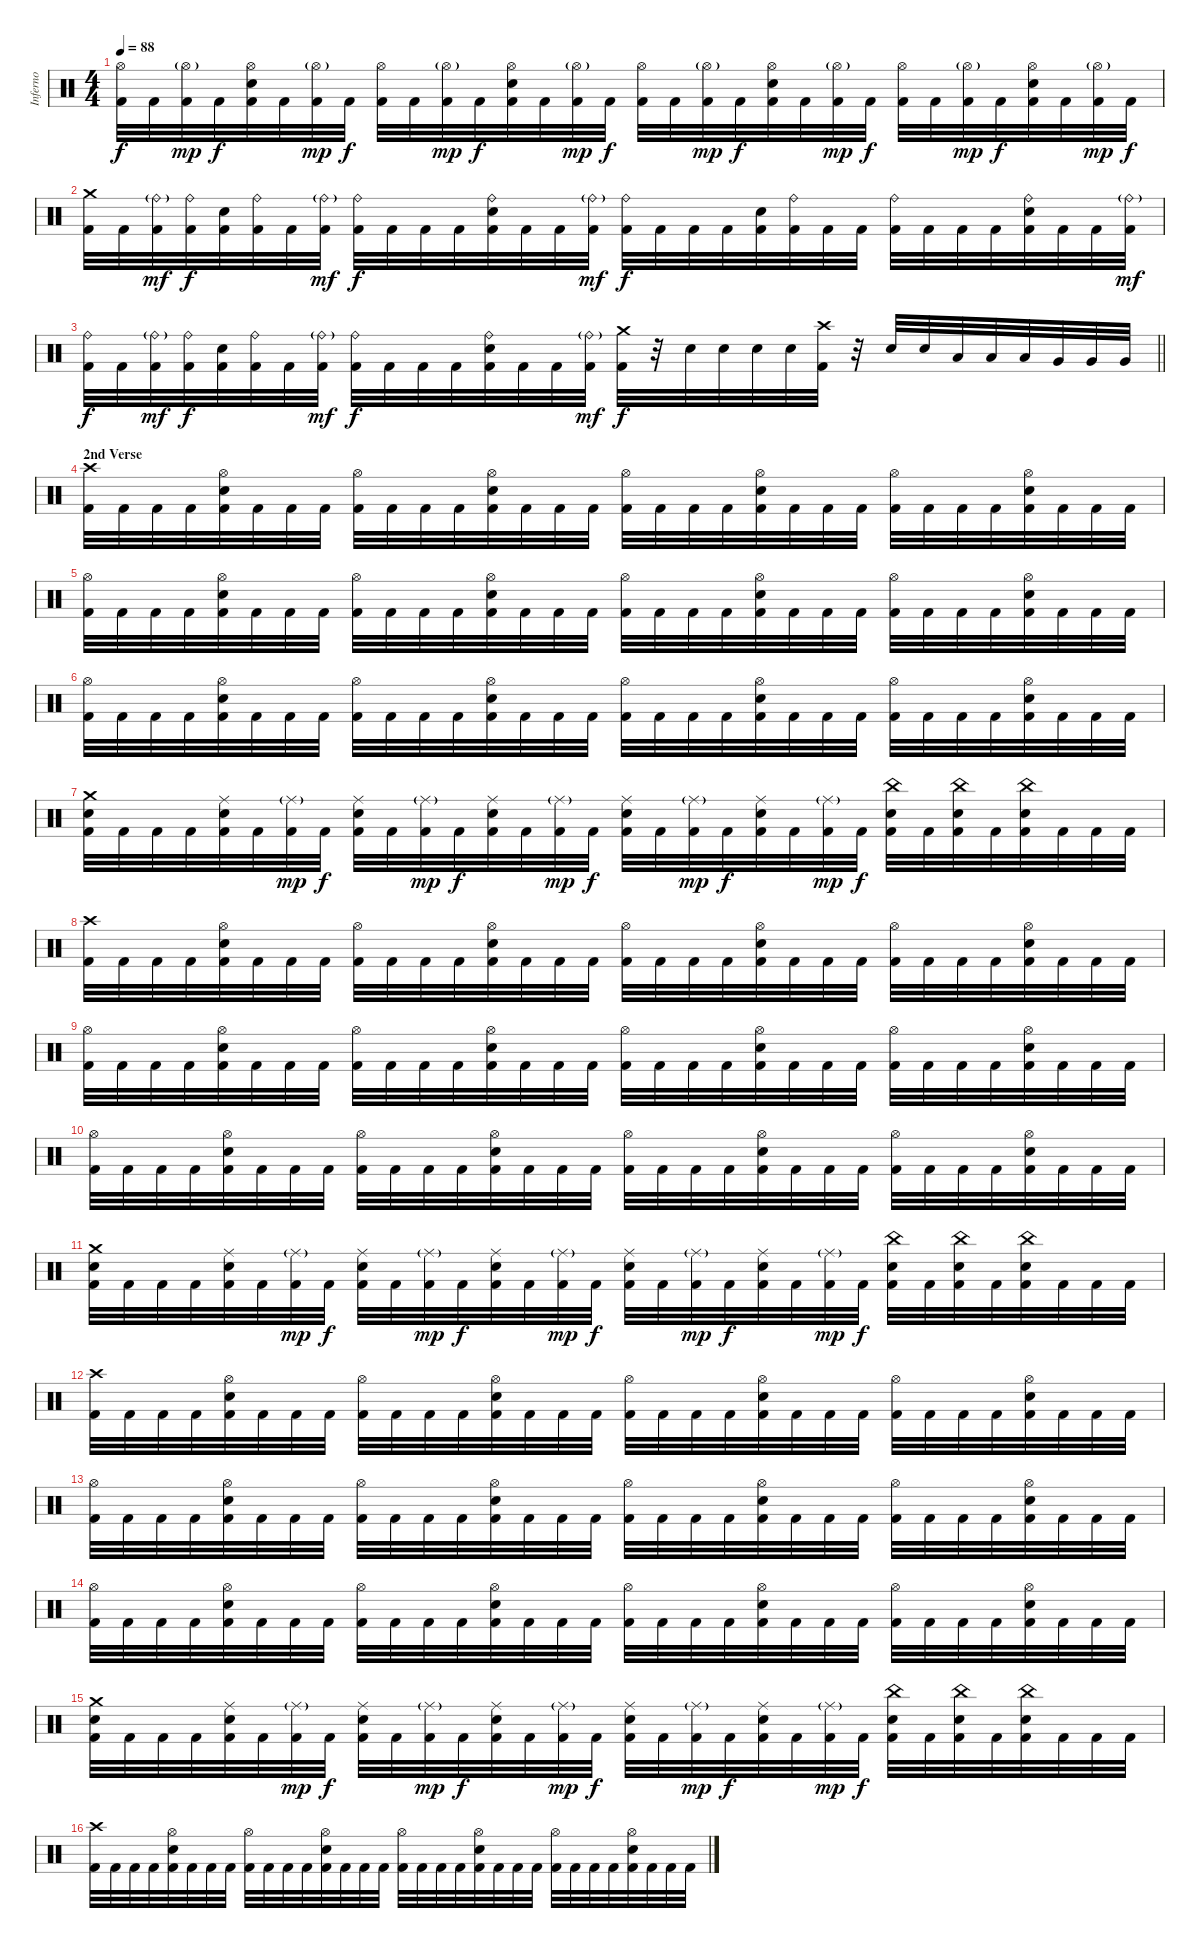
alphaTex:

\track ("Inferno" "Inferno") {instrument percussion}
\staff {score}
\articulation defaults
\ts (4 4)
\tempo 88
\clef neutral
\ks c
("Hi-Hat (open)" "Kick (hit) 2").32{dy f} "Kick (hit) 2".32 ("Hi-Hat (open)"{g} "Kick (hit) 2").32{dy mp} "Kick (hit) 2".32{dy f} ("Hi-Hat (open)" "Snare (hit) 2" "Kick (hit) 2").32 "Kick (hit) 2".32 ("Hi-Hat (open)"{g} "Kick (hit) 2").32{dy mp} "Kick (hit) 2".32{dy f} ("Hi-Hat (open)" "Kick (hit) 2").32 "Kick (hit) 2".32 ("Hi-Hat (open)"{g} "Kick (hit) 2").32{dy mp} "Kick (hit) 2".32{dy f} ("Hi-Hat (open)" "Snare (hit) 2" "Kick (hit) 2").32 "Kick (hit) 2".32 ("Hi-Hat (open)"{g} "Kick (hit) 2").32{dy mp} "Kick (hit) 2".32{dy f} ("Hi-Hat (open)" "Kick (hit) 2").32 "Kick (hit) 2".32 ("Hi-Hat (open)"{g} "Kick (hit) 2").32{dy mp} "Kick (hit) 2".32{dy f} ("Hi-Hat (open)" "Snare (hit) 2" "Kick (hit) 2").32 "Kick (hit) 2".32 ("Hi-Hat (open)"{g} "Kick (hit) 2").32{dy mp} "Kick (hit) 2".32{dy f} ("Hi-Hat (open)" "Kick (hit) 2").32 "Kick (hit) 2".32 ("Hi-Hat (open)"{g} "Kick (hit) 2").32{dy mp} "Kick (hit) 2".32{dy f} ("Hi-Hat (open)" "Snare (hit) 2" "Kick (hit) 2").32 "Kick (hit) 2".32 ("Hi-Hat (open)"{g} "Kick (hit) 2").32{dy mp} "Kick (hit) 2".32{dy f} |
("Crash medium (hit)" "Kick (hit) 2").32 "Kick (hit) 2".32 ("Ride (bell)"{g} "Kick (hit) 2").32{dy mf} ("Ride (bell)" "Kick (hit) 2").32{dy f} ("Snare (hit) 2" "Kick (hit) 2").32 ("Ride (bell)" "Kick (hit) 2").32 "Kick (hit) 2".32 ("Ride (bell)"{g} "Kick (hit) 2").32{dy mf} ("Ride (bell)" "Kick (hit) 2").32{dy f} "Kick (hit) 2".32 "Kick (hit) 2".32 "Kick (hit) 2".32 ("Ride (bell)" "Snare (hit) 2" "Kick (hit) 2").32 "Kick (hit) 2".32 "Kick (hit) 2".32 ("Ride (bell)"{g} "Kick (hit) 2").32{dy mf} ("Ride (bell)" "Kick (hit) 2").32{dy f} "Kick (hit) 2".32 "Kick (hit) 2".32 "Kick (hit) 2".32 ("Snare (hit) 2" "Kick (hit) 2").32 ("Ride (bell)" "Kick (hit) 2").32 "Kick (hit) 2".32 "Kick (hit) 2".32 ("Ride (bell)" "Kick (hit) 2").32 "Kick (hit) 2".32 "Kick (hit) 2".32 "Kick (hit) 2".32 ("Ride (bell)" "Snare (hit) 2" "Kick (hit) 2").32 "Kick (hit) 2".32 "Kick (hit) 2".32 ("Ride (bell)"{g} "Kick (hit) 2").32{dy mf} |
\barLineRight lightlight
("Ride (bell)" "Kick (hit) 2").32{dy f} "Kick (hit) 2".32 ("Ride (bell)"{g} "Kick (hit) 2").32{dy mf} ("Ride (bell)" "Kick (hit) 2").32{dy f} ("Snare (hit) 2" "Kick (hit) 2").32 ("Ride (bell)" "Kick (hit) 2").32 "Kick (hit) 2".32 ("Ride (bell)"{g} "Kick (hit) 2").32{dy mf} ("Ride (bell)" "Kick (hit) 2").32{dy f} "Kick (hit) 2".32 "Kick (hit) 2".32 "Kick (hit) 2".32 ("Ride (bell)" "Snare (hit) 2" "Kick (hit) 2").32 "Kick (hit) 2".32 "Kick (hit) 2".32 ("Ride (bell)"{g} "Kick (hit) 2").32{dy mf} ("Crash medium (hit)" "Kick (hit) 2").32{dy f} r.32 "Snare (hit) 2".32 "Snare (hit) 2".32 "Snare (hit) 2".32 "Snare (hit) 2".32 ("Crash high (hit)" "Kick (hit) 2").32 r.32 "Snare (hit) 2".32 "Snare (hit) 2".32 "Low Tom (hit)".32 "Low Tom (hit)".32 "Low Tom (hit)".32 "Very Low Tom (hit)".32 "Very Low Tom (hit)".32 "Very Low Tom (hit)".32 |
\section ("" "2nd Verse")
("Crash high (hit)" "Kick (hit) 2").32 "Kick (hit) 2".32 "Kick (hit) 2".32 "Kick (hit) 2".32 ("Hi-Hat (open)" "Snare (hit) 2" "Kick (hit) 2").32 "Kick (hit) 2".32 "Kick (hit) 2".32 "Kick (hit) 2".32 ("Hi-Hat (open)" "Kick (hit) 2").32 "Kick (hit) 2".32 "Kick (hit) 2".32 "Kick (hit) 2".32 ("Hi-Hat (open)" "Snare (hit) 2" "Kick (hit) 2").32 "Kick (hit) 2".32 "Kick (hit) 2".32 "Kick (hit) 2".32 ("Hi-Hat (open)" "Kick (hit) 2").32 "Kick (hit) 2".32 "Kick (hit) 2".32 "Kick (hit) 2".32 ("Hi-Hat (open)" "Snare (hit) 2" "Kick (hit) 2").32 "Kick (hit) 2".32 "Kick (hit) 2".32 "Kick (hit) 2".32 ("Hi-Hat (open)" "Kick (hit) 2").32 "Kick (hit) 2".32 "Kick (hit) 2".32 "Kick (hit) 2".32 ("Hi-Hat (open)" "Snare (hit) 2" "Kick (hit) 2").32 "Kick (hit) 2".32 "Kick (hit) 2".32 "Kick (hit) 2".32 |
("Hi-Hat (open)" "Kick (hit) 2").32 "Kick (hit) 2".32 "Kick (hit) 2".32 "Kick (hit) 2".32 ("Hi-Hat (open)" "Snare (hit) 2" "Kick (hit) 2").32 "Kick (hit) 2".32 "Kick (hit) 2".32 "Kick (hit) 2".32 ("Hi-Hat (open)" "Kick (hit) 2").32 "Kick (hit) 2".32 "Kick (hit) 2".32 "Kick (hit) 2".32 ("Hi-Hat (open)" "Snare (hit) 2" "Kick (hit) 2").32 "Kick (hit) 2".32 "Kick (hit) 2".32 "Kick (hit) 2".32 ("Hi-Hat (open)" "Kick (hit) 2").32 "Kick (hit) 2".32 "Kick (hit) 2".32 "Kick (hit) 2".32 ("Hi-Hat (open)" "Snare (hit) 2" "Kick (hit) 2").32 "Kick (hit) 2".32 "Kick (hit) 2".32 "Kick (hit) 2".32 ("Hi-Hat (open)" "Kick (hit) 2").32 "Kick (hit) 2".32 "Kick (hit) 2".32 "Kick (hit) 2".32 ("Hi-Hat (open)" "Snare (hit) 2" "Kick (hit) 2").32 "Kick (hit) 2".32 "Kick (hit) 2".32 "Kick (hit) 2".32 |
("Hi-Hat (open)" "Kick (hit) 2").32 "Kick (hit) 2".32 "Kick (hit) 2".32 "Kick (hit) 2".32 ("Hi-Hat (open)" "Snare (hit) 2" "Kick (hit) 2").32 "Kick (hit) 2".32 "Kick (hit) 2".32 "Kick (hit) 2".32 ("Hi-Hat (open)" "Kick (hit) 2").32 "Kick (hit) 2".32 "Kick (hit) 2".32 "Kick (hit) 2".32 ("Hi-Hat (open)" "Snare (hit) 2" "Kick (hit) 2").32 "Kick (hit) 2".32 "Kick (hit) 2".32 "Kick (hit) 2".32 ("Hi-Hat (open)" "Kick (hit) 2").32 "Kick (hit) 2".32 "Kick (hit) 2".32 "Kick (hit) 2".32 ("Hi-Hat (open)" "Snare (hit) 2" "Kick (hit) 2").32 "Kick (hit) 2".32 "Kick (hit) 2".32 "Kick (hit) 2".32 ("Hi-Hat (open)" "Kick (hit) 2").32 "Kick (hit) 2".32 "Kick (hit) 2".32 "Kick (hit) 2".32 ("Hi-Hat (open)" "Snare (hit) 2" "Kick (hit) 2").32 "Kick (hit) 2".32 "Kick (hit) 2".32 "Kick (hit) 2".32 |
("Crash medium (hit)" "Snare (hit) 2" "Kick (hit) 2").32 "Kick (hit) 2".32 "Kick (hit) 2".32 "Kick (hit) 2".32 ("Ride (middle)" "Snare (hit) 2" "Kick (hit) 2").32 "Kick (hit) 2".32 ("Ride (middle)"{g} "Kick (hit) 2").32{dy mp} "Kick (hit) 2".32{dy f} ("Ride (middle)" "Snare (hit) 2" "Kick (hit) 2").32 "Kick (hit) 2".32 ("Ride (middle)"{g} "Kick (hit) 2").32{dy mp} "Kick (hit) 2".32{dy f} ("Ride (middle)" "Snare (hit) 2" "Kick (hit) 2").32 "Kick (hit) 2".32 ("Ride (middle)"{g} "Kick (hit) 2").32{dy mp} "Kick (hit) 2".32{dy f} ("Ride (middle)" "Snare (hit) 2" "Kick (hit) 2").32 "Kick (hit) 2".32 ("Ride (middle)"{g} "Kick (hit) 2").32{dy mp} "Kick (hit) 2".32{dy f} ("Ride (middle)" "Snare (hit) 2" "Kick (hit) 2").32 "Kick (hit) 2".32 ("Ride (middle)"{g} "Kick (hit) 2").32{dy mp} "Kick (hit) 2".32{dy f} ("China (hit)" "Snare (hit) 2" "Kick (hit) 2").32 "Kick (hit) 2".32 ("China (hit)" "Snare (hit) 2" "Kick (hit) 2").32 "Kick (hit) 2".32 ("China (hit)" "Snare (hit) 2" "Kick (hit) 2").32 "Kick (hit) 2".32 "Kick (hit) 2".32 "Kick (hit) 2".32 |
("Crash high (hit)" "Kick (hit) 2").32 "Kick (hit) 2".32 "Kick (hit) 2".32 "Kick (hit) 2".32 ("Hi-Hat (open)" "Snare (hit) 2" "Kick (hit) 2").32 "Kick (hit) 2".32 "Kick (hit) 2".32 "Kick (hit) 2".32 ("Hi-Hat (open)" "Kick (hit) 2").32 "Kick (hit) 2".32 "Kick (hit) 2".32 "Kick (hit) 2".32 ("Hi-Hat (open)" "Snare (hit) 2" "Kick (hit) 2").32 "Kick (hit) 2".32 "Kick (hit) 2".32 "Kick (hit) 2".32 ("Hi-Hat (open)" "Kick (hit) 2").32 "Kick (hit) 2".32 "Kick (hit) 2".32 "Kick (hit) 2".32 ("Hi-Hat (open)" "Snare (hit) 2" "Kick (hit) 2").32 "Kick (hit) 2".32 "Kick (hit) 2".32 "Kick (hit) 2".32 ("Hi-Hat (open)" "Kick (hit) 2").32 "Kick (hit) 2".32 "Kick (hit) 2".32 "Kick (hit) 2".32 ("Hi-Hat (open)" "Snare (hit) 2" "Kick (hit) 2").32 "Kick (hit) 2".32 "Kick (hit) 2".32 "Kick (hit) 2".32 |
("Hi-Hat (open)" "Kick (hit) 2").32 "Kick (hit) 2".32 "Kick (hit) 2".32 "Kick (hit) 2".32 ("Hi-Hat (open)" "Snare (hit) 2" "Kick (hit) 2").32 "Kick (hit) 2".32 "Kick (hit) 2".32 "Kick (hit) 2".32 ("Hi-Hat (open)" "Kick (hit) 2").32 "Kick (hit) 2".32 "Kick (hit) 2".32 "Kick (hit) 2".32 ("Hi-Hat (open)" "Snare (hit) 2" "Kick (hit) 2").32 "Kick (hit) 2".32 "Kick (hit) 2".32 "Kick (hit) 2".32 ("Hi-Hat (open)" "Kick (hit) 2").32 "Kick (hit) 2".32 "Kick (hit) 2".32 "Kick (hit) 2".32 ("Hi-Hat (open)" "Snare (hit) 2" "Kick (hit) 2").32 "Kick (hit) 2".32 "Kick (hit) 2".32 "Kick (hit) 2".32 ("Hi-Hat (open)" "Kick (hit) 2").32 "Kick (hit) 2".32 "Kick (hit) 2".32 "Kick (hit) 2".32 ("Hi-Hat (open)" "Snare (hit) 2" "Kick (hit) 2").32 "Kick (hit) 2".32 "Kick (hit) 2".32 "Kick (hit) 2".32 |
("Hi-Hat (open)" "Kick (hit) 2").32 "Kick (hit) 2".32 "Kick (hit) 2".32 "Kick (hit) 2".32 ("Hi-Hat (open)" "Snare (hit) 2" "Kick (hit) 2").32 "Kick (hit) 2".32 "Kick (hit) 2".32 "Kick (hit) 2".32 ("Hi-Hat (open)" "Kick (hit) 2").32 "Kick (hit) 2".32 "Kick (hit) 2".32 "Kick (hit) 2".32 ("Hi-Hat (open)" "Snare (hit) 2" "Kick (hit) 2").32 "Kick (hit) 2".32 "Kick (hit) 2".32 "Kick (hit) 2".32 ("Hi-Hat (open)" "Kick (hit) 2").32 "Kick (hit) 2".32 "Kick (hit) 2".32 "Kick (hit) 2".32 ("Hi-Hat (open)" "Snare (hit) 2" "Kick (hit) 2").32 "Kick (hit) 2".32 "Kick (hit) 2".32 "Kick (hit) 2".32 ("Hi-Hat (open)" "Kick (hit) 2").32 "Kick (hit) 2".32 "Kick (hit) 2".32 "Kick (hit) 2".32 ("Hi-Hat (open)" "Snare (hit) 2" "Kick (hit) 2").32 "Kick (hit) 2".32 "Kick (hit) 2".32 "Kick (hit) 2".32 |
("Crash medium (hit)" "Snare (hit) 2" "Kick (hit) 2").32 "Kick (hit) 2".32 "Kick (hit) 2".32 "Kick (hit) 2".32 ("Ride (middle)" "Snare (hit) 2" "Kick (hit) 2").32 "Kick (hit) 2".32 ("Ride (middle)"{g} "Kick (hit) 2").32{dy mp} "Kick (hit) 2".32{dy f} ("Ride (middle)" "Snare (hit) 2" "Kick (hit) 2").32 "Kick (hit) 2".32 ("Ride (middle)"{g} "Kick (hit) 2").32{dy mp} "Kick (hit) 2".32{dy f} ("Ride (middle)" "Snare (hit) 2" "Kick (hit) 2").32 "Kick (hit) 2".32 ("Ride (middle)"{g} "Kick (hit) 2").32{dy mp} "Kick (hit) 2".32{dy f} ("Ride (middle)" "Snare (hit) 2" "Kick (hit) 2").32 "Kick (hit) 2".32 ("Ride (middle)"{g} "Kick (hit) 2").32{dy mp} "Kick (hit) 2".32{dy f} ("Ride (middle)" "Snare (hit) 2" "Kick (hit) 2").32 "Kick (hit) 2".32 ("Ride (middle)"{g} "Kick (hit) 2").32{dy mp} "Kick (hit) 2".32{dy f} ("China (hit)" "Snare (hit) 2" "Kick (hit) 2").32 "Kick (hit) 2".32 ("China (hit)" "Snare (hit) 2" "Kick (hit) 2").32 "Kick (hit) 2".32 ("China (hit)" "Snare (hit) 2" "Kick (hit) 2").32 "Kick (hit) 2".32 "Kick (hit) 2".32 "Kick (hit) 2".32 |
("Crash high (hit)" "Kick (hit) 2").32 "Kick (hit) 2".32 "Kick (hit) 2".32 "Kick (hit) 2".32 ("Hi-Hat (open)" "Snare (hit) 2" "Kick (hit) 2").32 "Kick (hit) 2".32 "Kick (hit) 2".32 "Kick (hit) 2".32 ("Hi-Hat (open)" "Kick (hit) 2").32 "Kick (hit) 2".32 "Kick (hit) 2".32 "Kick (hit) 2".32 ("Hi-Hat (open)" "Snare (hit) 2" "Kick (hit) 2").32 "Kick (hit) 2".32 "Kick (hit) 2".32 "Kick (hit) 2".32 ("Hi-Hat (open)" "Kick (hit) 2").32 "Kick (hit) 2".32 "Kick (hit) 2".32 "Kick (hit) 2".32 ("Hi-Hat (open)" "Snare (hit) 2" "Kick (hit) 2").32 "Kick (hit) 2".32 "Kick (hit) 2".32 "Kick (hit) 2".32 ("Hi-Hat (open)" "Kick (hit) 2").32 "Kick (hit) 2".32 "Kick (hit) 2".32 "Kick (hit) 2".32 ("Hi-Hat (open)" "Snare (hit) 2" "Kick (hit) 2").32 "Kick (hit) 2".32 "Kick (hit) 2".32 "Kick (hit) 2".32 |
("Hi-Hat (open)" "Kick (hit) 2").32 "Kick (hit) 2".32 "Kick (hit) 2".32 "Kick (hit) 2".32 ("Hi-Hat (open)" "Snare (hit) 2" "Kick (hit) 2").32 "Kick (hit) 2".32 "Kick (hit) 2".32 "Kick (hit) 2".32 ("Hi-Hat (open)" "Kick (hit) 2").32 "Kick (hit) 2".32 "Kick (hit) 2".32 "Kick (hit) 2".32 ("Hi-Hat (open)" "Snare (hit) 2" "Kick (hit) 2").32 "Kick (hit) 2".32 "Kick (hit) 2".32 "Kick (hit) 2".32 ("Hi-Hat (open)" "Kick (hit) 2").32 "Kick (hit) 2".32 "Kick (hit) 2".32 "Kick (hit) 2".32 ("Hi-Hat (open)" "Snare (hit) 2" "Kick (hit) 2").32 "Kick (hit) 2".32 "Kick (hit) 2".32 "Kick (hit) 2".32 ("Hi-Hat (open)" "Kick (hit) 2").32 "Kick (hit) 2".32 "Kick (hit) 2".32 "Kick (hit) 2".32 ("Hi-Hat (open)" "Snare (hit) 2" "Kick (hit) 2").32 "Kick (hit) 2".32 "Kick (hit) 2".32 "Kick (hit) 2".32 |
("Hi-Hat (open)" "Kick (hit) 2").32 "Kick (hit) 2".32 "Kick (hit) 2".32 "Kick (hit) 2".32 ("Hi-Hat (open)" "Snare (hit) 2" "Kick (hit) 2").32 "Kick (hit) 2".32 "Kick (hit) 2".32 "Kick (hit) 2".32 ("Hi-Hat (open)" "Kick (hit) 2").32 "Kick (hit) 2".32 "Kick (hit) 2".32 "Kick (hit) 2".32 ("Hi-Hat (open)" "Snare (hit) 2" "Kick (hit) 2").32 "Kick (hit) 2".32 "Kick (hit) 2".32 "Kick (hit) 2".32 ("Hi-Hat (open)" "Kick (hit) 2").32 "Kick (hit) 2".32 "Kick (hit) 2".32 "Kick (hit) 2".32 ("Hi-Hat (open)" "Snare (hit) 2" "Kick (hit) 2").32 "Kick (hit) 2".32 "Kick (hit) 2".32 "Kick (hit) 2".32 ("Hi-Hat (open)" "Kick (hit) 2").32 "Kick (hit) 2".32 "Kick (hit) 2".32 "Kick (hit) 2".32 ("Hi-Hat (open)" "Snare (hit) 2" "Kick (hit) 2").32 "Kick (hit) 2".32 "Kick (hit) 2".32 "Kick (hit) 2".32 |
("Crash medium (hit)" "Snare (hit) 2" "Kick (hit) 2").32 "Kick (hit) 2".32 "Kick (hit) 2".32 "Kick (hit) 2".32 ("Ride (middle)" "Snare (hit) 2" "Kick (hit) 2").32 "Kick (hit) 2".32 ("Ride (middle)"{g} "Kick (hit) 2").32{dy mp} "Kick (hit) 2".32{dy f} ("Ride (middle)" "Snare (hit) 2" "Kick (hit) 2").32 "Kick (hit) 2".32 ("Ride (middle)"{g} "Kick (hit) 2").32{dy mp} "Kick (hit) 2".32{dy f} ("Ride (middle)" "Snare (hit) 2" "Kick (hit) 2").32 "Kick (hit) 2".32 ("Ride (middle)"{g} "Kick (hit) 2").32{dy mp} "Kick (hit) 2".32{dy f} ("Ride (middle)" "Snare (hit) 2" "Kick (hit) 2").32 "Kick (hit) 2".32 ("Ride (middle)"{g} "Kick (hit) 2").32{dy mp} "Kick (hit) 2".32{dy f} ("Ride (middle)" "Snare (hit) 2" "Kick (hit) 2").32 "Kick (hit) 2".32 ("Ride (middle)"{g} "Kick (hit) 2").32{dy mp} "Kick (hit) 2".32{dy f} ("China (hit)" "Snare (hit) 2" "Kick (hit) 2").32 "Kick (hit) 2".32 ("China (hit)" "Snare (hit) 2" "Kick (hit) 2").32 "Kick (hit) 2".32 ("China (hit)" "Snare (hit) 2" "Kick (hit) 2").32 "Kick (hit) 2".32 "Kick (hit) 2".32 "Kick (hit) 2".32 |
("Crash high (hit)" "Kick (hit) 2").32 "Kick (hit) 2".32 "Kick (hit) 2".32 "Kick (hit) 2".32 ("Hi-Hat (open)" "Snare (hit) 2" "Kick (hit) 2").32 "Kick (hit) 2".32 "Kick (hit) 2".32 "Kick (hit) 2".32 ("Hi-Hat (open)" "Kick (hit) 2").32 "Kick (hit) 2".32 "Kick (hit) 2".32 "Kick (hit) 2".32 ("Hi-Hat (open)" "Snare (hit) 2" "Kick (hit) 2").32 "Kick (hit) 2".32 "Kick (hit) 2".32 "Kick (hit) 2".32 ("Hi-Hat (open)" "Kick (hit) 2").32 "Kick (hit) 2".32 "Kick (hit) 2".32 "Kick (hit) 2".32 ("Hi-Hat (open)" "Snare (hit) 2" "Kick (hit) 2").32 "Kick (hit) 2".32 "Kick (hit) 2".32 "Kick (hit) 2".32 ("Hi-Hat (open)" "Kick (hit) 2").32 "Kick (hit) 2".32 "Kick (hit) 2".32 "Kick (hit) 2".32 ("Hi-Hat (open)" "Snare (hit) 2" "Kick (hit) 2").32 "Kick (hit) 2".32 "Kick (hit) 2".32 "Kick (hit) 2".32
